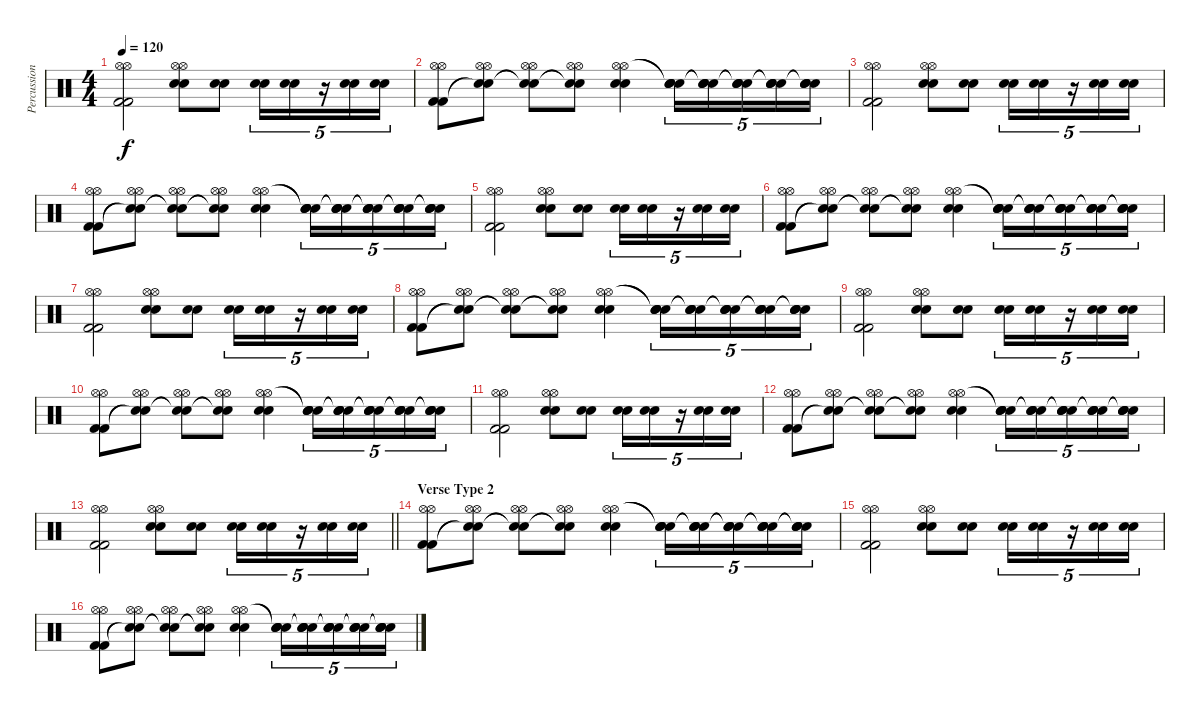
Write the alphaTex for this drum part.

\track ("Percussion" "Percussion") {instrument percussion}
\staff {score}
\articulation defaults
\ts (4 4)
\tempo 120
\clef neutral
\ks c
("Hi-Hat (open)" "Hi-Hat (open)" "Kick (hit) 2" "Kick (hit) 2").2{dy f} ("Hi-Hat (open)" "Hi-Hat (open)" "Electric Snare (hit)" "Electric Snare (hit)").8 ("Electric Snare (hit)" "Electric Snare (hit)").8 ("Electric Snare (hit)" "Electric Snare (hit)").16{tu (5 4)} ("Electric Snare (hit)" "Electric Snare (hit)").16{tu (5 4)} r.16{tu (5 4)} ("Electric Snare (hit)" "Electric Snare (hit)").16{tu (5 4)} ("Electric Snare (hit)" "Electric Snare (hit)").16{tu (5 4)} |
("Hi-Hat (open)" "Hi-Hat (open)" "Kick (hit) 2" "Kick (hit) 2").8 ("Hi-Hat (open)" "Hi-Hat (open)" "Snare (hit)"{t} "Snare (hit)"{t}).8 ("Hi-Hat (open)" "Hi-Hat (open)" "Snare (hit)"{t} "Snare (hit)"{t}).8 ("Hi-Hat (open)" "Hi-Hat (open)" "Snare (hit)"{t} "Snare (hit)"{t}).8 ("Hi-Hat (open)" "Hi-Hat (open)" "Electric Snare (hit)" "Electric Snare (hit)").4 ("Snare (hit)"{t} "Snare (hit)"{t} "Electric Snare (hit)" "Electric Snare (hit)").16{tu (5 4)} ("Snare (hit)"{t} "Snare (hit)"{t} "Electric Snare (hit)" "Electric Snare (hit)").16{tu (5 4)} ("Snare (hit)"{t} "Snare (hit)"{t} "Electric Snare (hit)" "Electric Snare (hit)").16{tu (5 4)} ("Snare (hit)"{t} "Snare (hit)"{t} "Electric Snare (hit)" "Electric Snare (hit)").16{tu (5 4)} ("Snare (hit)"{t} "Snare (hit)"{t} "Electric Snare (hit)" "Electric Snare (hit)").16{tu (5 4)} |
("Hi-Hat (open)" "Hi-Hat (open)" "Kick (hit) 2" "Kick (hit) 2").2 ("Hi-Hat (open)" "Hi-Hat (open)" "Electric Snare (hit)" "Electric Snare (hit)").8 ("Electric Snare (hit)" "Electric Snare (hit)").8 ("Electric Snare (hit)" "Electric Snare (hit)").16{tu (5 4)} ("Electric Snare (hit)" "Electric Snare (hit)").16{tu (5 4)} r.16{tu (5 4)} ("Electric Snare (hit)" "Electric Snare (hit)").16{tu (5 4)} ("Electric Snare (hit)" "Electric Snare (hit)").16{tu (5 4)} |
("Hi-Hat (open)" "Hi-Hat (open)" "Kick (hit) 2" "Kick (hit) 2").8 ("Hi-Hat (open)" "Hi-Hat (open)" "Snare (hit)"{t} "Snare (hit)"{t}).8 ("Hi-Hat (open)" "Hi-Hat (open)" "Snare (hit)"{t} "Snare (hit)"{t}).8 ("Hi-Hat (open)" "Hi-Hat (open)" "Snare (hit)"{t} "Snare (hit)"{t}).8 ("Hi-Hat (open)" "Hi-Hat (open)" "Electric Snare (hit)" "Electric Snare (hit)").4 ("Snare (hit)"{t} "Snare (hit)"{t} "Electric Snare (hit)" "Electric Snare (hit)").16{tu (5 4)} ("Snare (hit)"{t} "Snare (hit)"{t} "Electric Snare (hit)" "Electric Snare (hit)").16{tu (5 4)} ("Snare (hit)"{t} "Snare (hit)"{t} "Electric Snare (hit)" "Electric Snare (hit)").16{tu (5 4)} ("Snare (hit)"{t} "Snare (hit)"{t} "Electric Snare (hit)" "Electric Snare (hit)").16{tu (5 4)} ("Snare (hit)"{t} "Snare (hit)"{t} "Electric Snare (hit)" "Electric Snare (hit)").16{tu (5 4)} |
("Hi-Hat (open)" "Hi-Hat (open)" "Kick (hit) 2" "Kick (hit) 2").2 ("Hi-Hat (open)" "Hi-Hat (open)" "Electric Snare (hit)" "Electric Snare (hit)").8 ("Electric Snare (hit)" "Electric Snare (hit)").8 ("Electric Snare (hit)" "Electric Snare (hit)").16{tu (5 4)} ("Electric Snare (hit)" "Electric Snare (hit)").16{tu (5 4)} r.16{tu (5 4)} ("Electric Snare (hit)" "Electric Snare (hit)").16{tu (5 4)} ("Electric Snare (hit)" "Electric Snare (hit)").16{tu (5 4)} |
("Hi-Hat (open)" "Hi-Hat (open)" "Kick (hit) 2" "Kick (hit) 2").8 ("Hi-Hat (open)" "Hi-Hat (open)" "Snare (hit)"{t} "Snare (hit)"{t}).8 ("Hi-Hat (open)" "Hi-Hat (open)" "Snare (hit)"{t} "Snare (hit)"{t}).8 ("Hi-Hat (open)" "Hi-Hat (open)" "Snare (hit)"{t} "Snare (hit)"{t}).8 ("Hi-Hat (open)" "Hi-Hat (open)" "Electric Snare (hit)" "Electric Snare (hit)").4 ("Snare (hit)"{t} "Snare (hit)"{t} "Electric Snare (hit)" "Electric Snare (hit)").16{tu (5 4)} ("Snare (hit)"{t} "Snare (hit)"{t} "Electric Snare (hit)" "Electric Snare (hit)").16{tu (5 4)} ("Snare (hit)"{t} "Snare (hit)"{t} "Electric Snare (hit)" "Electric Snare (hit)").16{tu (5 4)} ("Snare (hit)"{t} "Snare (hit)"{t} "Electric Snare (hit)" "Electric Snare (hit)").16{tu (5 4)} ("Snare (hit)"{t} "Snare (hit)"{t} "Electric Snare (hit)" "Electric Snare (hit)").16{tu (5 4)} |
("Hi-Hat (open)" "Hi-Hat (open)" "Kick (hit) 2" "Kick (hit) 2").2 ("Hi-Hat (open)" "Hi-Hat (open)" "Electric Snare (hit)" "Electric Snare (hit)").8 ("Electric Snare (hit)" "Electric Snare (hit)").8 ("Electric Snare (hit)" "Electric Snare (hit)").16{tu (5 4)} ("Electric Snare (hit)" "Electric Snare (hit)").16{tu (5 4)} r.16{tu (5 4)} ("Electric Snare (hit)" "Electric Snare (hit)").16{tu (5 4)} ("Electric Snare (hit)" "Electric Snare (hit)").16{tu (5 4)} |
("Hi-Hat (open)" "Hi-Hat (open)" "Kick (hit) 2" "Kick (hit) 2").8 ("Hi-Hat (open)" "Hi-Hat (open)" "Snare (hit)"{t} "Snare (hit)"{t}).8 ("Hi-Hat (open)" "Hi-Hat (open)" "Snare (hit)"{t} "Snare (hit)"{t}).8 ("Hi-Hat (open)" "Hi-Hat (open)" "Snare (hit)"{t} "Snare (hit)"{t}).8 ("Hi-Hat (open)" "Hi-Hat (open)" "Electric Snare (hit)" "Electric Snare (hit)").4 ("Snare (hit)"{t} "Snare (hit)"{t} "Electric Snare (hit)" "Electric Snare (hit)").16{tu (5 4)} ("Snare (hit)"{t} "Snare (hit)"{t} "Electric Snare (hit)" "Electric Snare (hit)").16{tu (5 4)} ("Snare (hit)"{t} "Snare (hit)"{t} "Electric Snare (hit)" "Electric Snare (hit)").16{tu (5 4)} ("Snare (hit)"{t} "Snare (hit)"{t} "Electric Snare (hit)" "Electric Snare (hit)").16{tu (5 4)} ("Snare (hit)"{t} "Snare (hit)"{t} "Electric Snare (hit)" "Electric Snare (hit)").16{tu (5 4)} |
("Hi-Hat (open)" "Hi-Hat (open)" "Kick (hit) 2" "Kick (hit) 2").2 ("Hi-Hat (open)" "Hi-Hat (open)" "Electric Snare (hit)" "Electric Snare (hit)").8 ("Electric Snare (hit)" "Electric Snare (hit)").8 ("Electric Snare (hit)" "Electric Snare (hit)").16{tu (5 4)} ("Electric Snare (hit)" "Electric Snare (hit)").16{tu (5 4)} r.16{tu (5 4)} ("Electric Snare (hit)" "Electric Snare (hit)").16{tu (5 4)} ("Electric Snare (hit)" "Electric Snare (hit)").16{tu (5 4)} |
("Hi-Hat (open)" "Hi-Hat (open)" "Kick (hit) 2" "Kick (hit) 2").8 ("Hi-Hat (open)" "Hi-Hat (open)" "Snare (hit)"{t} "Snare (hit)"{t}).8 ("Hi-Hat (open)" "Hi-Hat (open)" "Snare (hit)"{t} "Snare (hit)"{t}).8 ("Hi-Hat (open)" "Hi-Hat (open)" "Snare (hit)"{t} "Snare (hit)"{t}).8 ("Hi-Hat (open)" "Hi-Hat (open)" "Electric Snare (hit)" "Electric Snare (hit)").4 ("Snare (hit)"{t} "Snare (hit)"{t} "Electric Snare (hit)" "Electric Snare (hit)").16{tu (5 4)} ("Snare (hit)"{t} "Snare (hit)"{t} "Electric Snare (hit)" "Electric Snare (hit)").16{tu (5 4)} ("Snare (hit)"{t} "Snare (hit)"{t} "Electric Snare (hit)" "Electric Snare (hit)").16{tu (5 4)} ("Snare (hit)"{t} "Snare (hit)"{t} "Electric Snare (hit)" "Electric Snare (hit)").16{tu (5 4)} ("Snare (hit)"{t} "Snare (hit)"{t} "Electric Snare (hit)" "Electric Snare (hit)").16{tu (5 4)} |
("Hi-Hat (open)" "Hi-Hat (open)" "Kick (hit) 2" "Kick (hit) 2").2 ("Hi-Hat (open)" "Hi-Hat (open)" "Electric Snare (hit)" "Electric Snare (hit)").8 ("Electric Snare (hit)" "Electric Snare (hit)").8 ("Electric Snare (hit)" "Electric Snare (hit)").16{tu (5 4)} ("Electric Snare (hit)" "Electric Snare (hit)").16{tu (5 4)} r.16{tu (5 4)} ("Electric Snare (hit)" "Electric Snare (hit)").16{tu (5 4)} ("Electric Snare (hit)" "Electric Snare (hit)").16{tu (5 4)} |
("Hi-Hat (open)" "Hi-Hat (open)" "Kick (hit) 2" "Kick (hit) 2").8 ("Hi-Hat (open)" "Hi-Hat (open)" "Snare (hit)"{t} "Snare (hit)"{t}).8 ("Hi-Hat (open)" "Hi-Hat (open)" "Snare (hit)"{t} "Snare (hit)"{t}).8 ("Hi-Hat (open)" "Hi-Hat (open)" "Snare (hit)"{t} "Snare (hit)"{t}).8 ("Hi-Hat (open)" "Hi-Hat (open)" "Electric Snare (hit)" "Electric Snare (hit)").4 ("Snare (hit)"{t} "Snare (hit)"{t} "Electric Snare (hit)" "Electric Snare (hit)").16{tu (5 4)} ("Snare (hit)"{t} "Snare (hit)"{t} "Electric Snare (hit)" "Electric Snare (hit)").16{tu (5 4)} ("Snare (hit)"{t} "Snare (hit)"{t} "Electric Snare (hit)" "Electric Snare (hit)").16{tu (5 4)} ("Snare (hit)"{t} "Snare (hit)"{t} "Electric Snare (hit)" "Electric Snare (hit)").16{tu (5 4)} ("Snare (hit)"{t} "Snare (hit)"{t} "Electric Snare (hit)" "Electric Snare (hit)").16{tu (5 4)} |
\barLineRight lightlight
("Hi-Hat (open)" "Hi-Hat (open)" "Kick (hit) 2" "Kick (hit) 2").2 ("Hi-Hat (open)" "Hi-Hat (open)" "Electric Snare (hit)" "Electric Snare (hit)").8 ("Electric Snare (hit)" "Electric Snare (hit)").8 ("Electric Snare (hit)" "Electric Snare (hit)").16{tu (5 4)} ("Electric Snare (hit)" "Electric Snare (hit)").16{tu (5 4)} r.16{tu (5 4)} ("Electric Snare (hit)" "Electric Snare (hit)").16{tu (5 4)} ("Electric Snare (hit)" "Electric Snare (hit)").16{tu (5 4)} |
\section ("" "Verse Type 2")
("Hi-Hat (open)" "Hi-Hat (open)" "Kick (hit) 2" "Kick (hit) 2").8 ("Hi-Hat (open)" "Hi-Hat (open)" "Snare (hit)"{t} "Snare (hit)"{t}).8 ("Hi-Hat (open)" "Hi-Hat (open)" "Snare (hit)"{t} "Snare (hit)"{t}).8 ("Hi-Hat (open)" "Hi-Hat (open)" "Snare (hit)"{t} "Snare (hit)"{t}).8 ("Hi-Hat (open)" "Hi-Hat (open)" "Electric Snare (hit)" "Electric Snare (hit)").4 ("Snare (hit)"{t} "Snare (hit)"{t} "Electric Snare (hit)" "Electric Snare (hit)").16{tu (5 4)} ("Snare (hit)"{t} "Snare (hit)"{t} "Electric Snare (hit)" "Electric Snare (hit)").16{tu (5 4)} ("Snare (hit)"{t} "Snare (hit)"{t} "Electric Snare (hit)" "Electric Snare (hit)").16{tu (5 4)} ("Snare (hit)"{t} "Snare (hit)"{t} "Electric Snare (hit)" "Electric Snare (hit)").16{tu (5 4)} ("Snare (hit)"{t} "Snare (hit)"{t} "Electric Snare (hit)" "Electric Snare (hit)").16{tu (5 4)} |
("Hi-Hat (open)" "Hi-Hat (open)" "Kick (hit) 2" "Kick (hit) 2").2 ("Hi-Hat (open)" "Hi-Hat (open)" "Electric Snare (hit)" "Electric Snare (hit)").8 ("Electric Snare (hit)" "Electric Snare (hit)").8 ("Electric Snare (hit)" "Electric Snare (hit)").16{tu (5 4)} ("Electric Snare (hit)" "Electric Snare (hit)").16{tu (5 4)} r.16{tu (5 4)} ("Electric Snare (hit)" "Electric Snare (hit)").16{tu (5 4)} ("Electric Snare (hit)" "Electric Snare (hit)").16{tu (5 4)} |
("Hi-Hat (open)" "Hi-Hat (open)" "Kick (hit) 2" "Kick (hit) 2").8 ("Hi-Hat (open)" "Hi-Hat (open)" "Snare (hit)"{t} "Snare (hit)"{t}).8 ("Hi-Hat (open)" "Hi-Hat (open)" "Snare (hit)"{t} "Snare (hit)"{t}).8 ("Hi-Hat (open)" "Hi-Hat (open)" "Snare (hit)"{t} "Snare (hit)"{t}).8 ("Hi-Hat (open)" "Hi-Hat (open)" "Electric Snare (hit)" "Electric Snare (hit)").4 ("Snare (hit)"{t} "Snare (hit)"{t} "Electric Snare (hit)" "Electric Snare (hit)").16{tu (5 4)} ("Snare (hit)"{t} "Snare (hit)"{t} "Electric Snare (hit)" "Electric Snare (hit)").16{tu (5 4)} ("Snare (hit)"{t} "Snare (hit)"{t} "Electric Snare (hit)" "Electric Snare (hit)").16{tu (5 4)} ("Snare (hit)"{t} "Snare (hit)"{t} "Electric Snare (hit)" "Electric Snare (hit)").16{tu (5 4)} ("Snare (hit)"{t} "Snare (hit)"{t} "Electric Snare (hit)" "Electric Snare (hit)").16{tu (5 4)}
